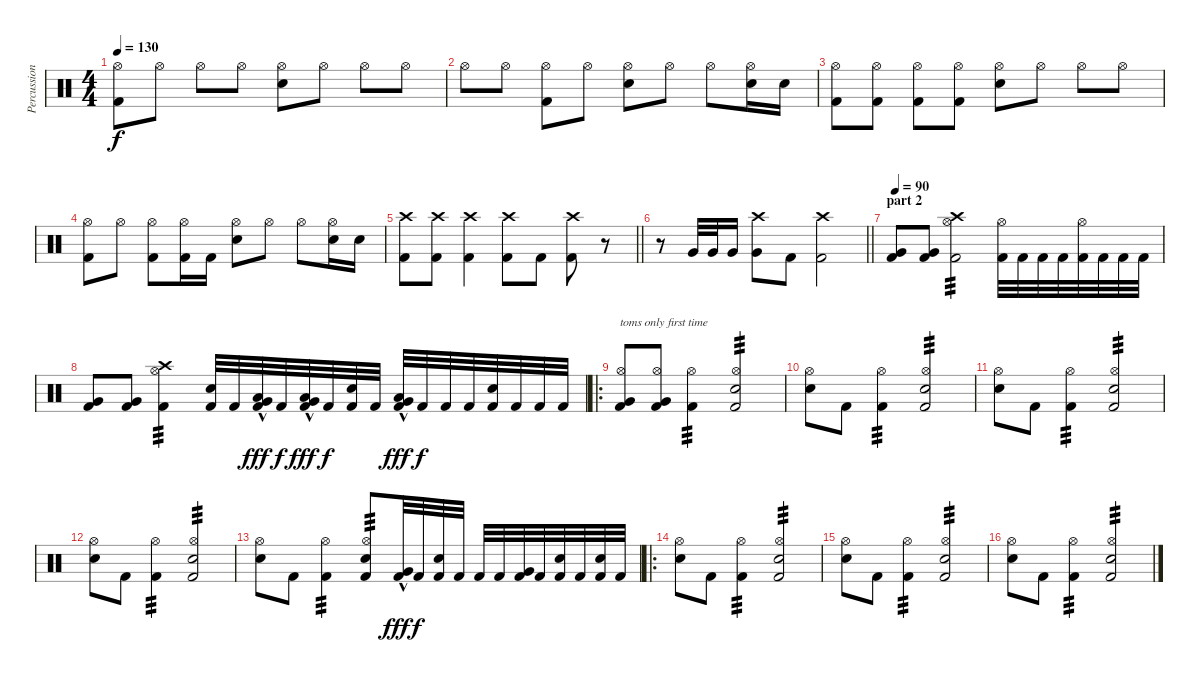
\track ("Percussion" "Percussion") {instrument percussion}
\staff {score}
\articulation defaults
\ts (4 4)
\tempo 130
\clef neutral
\ks c
("Kick (hit) 2" "Hi-Hat (open)").8{dy f} "Hi-Hat (open)".8 "Hi-Hat (open)".8 "Hi-Hat (open)".8 ("Electric Snare (hit)" "Hi-Hat (open)").8 "Hi-Hat (open)".8 "Hi-Hat (open)".8 "Hi-Hat (open)".8 |
"Hi-Hat (open)".8 "Hi-Hat (open)".8 ("Kick (hit) 2" "Hi-Hat (open)").8 "Hi-Hat (open)".8 ("Electric Snare (hit)" "Hi-Hat (open)").8 "Hi-Hat (open)".8 "Hi-Hat (open)".8 ("Electric Snare (hit)" "Hi-Hat (open)").16 "Electric Snare (hit)".16 |
("Kick (hit) 2" "Hi-Hat (open)").8 ("Kick (hit) 2" "Hi-Hat (open)").8 ("Kick (hit) 2" "Hi-Hat (open)").8 ("Kick (hit) 2" "Hi-Hat (open)").8 ("Electric Snare (hit)" "Hi-Hat (open)").8 "Hi-Hat (open)".8 "Hi-Hat (open)".8 "Hi-Hat (open)".8 |
("Kick (hit) 2" "Hi-Hat (open)").8 "Hi-Hat (open)".8 ("Kick (hit) 2" "Hi-Hat (open)").8 ("Kick (hit) 2" "Hi-Hat (open)").16 "Kick (hit) 2".16 ("Electric Snare (hit)" "Hi-Hat (open)").8 "Hi-Hat (open)".8 "Hi-Hat (open)".8 ("Electric Snare (hit)" "Hi-Hat (open)").16 "Electric Snare (hit)".16 |
\barLineRight lightlight
("Kick (hit) 2" "Crash high (hit)").8 ("Kick (hit) 2" "Crash high (hit)").8 ("Kick (hit) 2" "Crash high (hit)").4 ("Kick (hit) 2" "Crash high (hit)").8 "Kick (hit) 2".8 ("Kick (hit) 2" "Crash high (hit)").8 r.8 |
\barLineRight lightlight
r.8 "Very Low Tom (hit)".32 "Very Low Tom (hit)".32 "Very Low Tom (hit)".16 ("Very Low Tom (hit)" "Crash high (hit)").8 "Kick (hit) 2".8 ("Kick (hit) 2" "Crash high (hit)").2 |
\section ("" "part 2")
\tempo 90
("Kick (hit) 2" "Very Low Tom (hit)").8 ("Kick (hit) 2" "Very Low Tom (hit)").8 ("Kick (hit) 2" "Hi-Hat (open)" "Crash high (hit)").2{tp 3} ("Kick (hit) 2" "Hi-Hat (open)").32 "Kick (hit) 2".32 "Kick (hit) 2".32 "Kick (hit) 2".32 ("Kick (hit) 2" "Hi-Hat (open)").32 "Kick (hit) 2".32 "Kick (hit) 2".32 "Kick (hit) 2".32 |
("Kick (hit) 2" "Very Low Tom (hit)").8 ("Kick (hit) 2" "Very Low Tom (hit)").8 ("Kick (hit) 2" "Hi-Hat (open)" "Crash high (hit)").4{tp 3} ("Electric Snare (hit)" "Kick (hit) 2").32 "Kick (hit) 2".32 ("Kick (hit) 2" "Very Low Tom (hit)"{hac} "Low Tom (hit)"{hac}).32{dy fff} "Kick (hit) 2".32{dy f} ("Kick (hit) 2" "Very Low Tom (hit)"{hac} "Low Tom (hit)"{hac}).32{dy fff} "Kick (hit) 2".32{dy f} ("Electric Snare (hit)" "Kick (hit) 2").32 "Kick (hit) 2".32 ("Kick (hit) 2" "Very Low Tom (hit)"{hac} "Low Tom (hit)"{hac}).32{dy fff} "Kick (hit) 2".32{dy f} "Kick (hit) 2".32 "Kick (hit) 2".32 ("Electric Snare (hit)" "Kick (hit) 2").32 "Kick (hit) 2".32 "Kick (hit) 2".32 "Kick (hit) 2".32 |
\ro
("Kick (hit) 2" "Very Low Tom (hit)" "Hi-Hat (open)").8{txt "toms only first time"} ("Kick (hit) 2" "Very Low Tom (hit)" "Hi-Hat (open)").8 ("Kick (hit) 2" "Hi-Hat (open)").4{tp 3} ("Kick (hit) 2" "Electric Snare (hit)" "Hi-Hat (open)").2{tp 3} |
("Electric Snare (hit)" "Hi-Hat (open)").8 "Kick (hit) 2".8 ("Kick (hit) 2" "Hi-Hat (open)").4{tp 3} ("Kick (hit) 2" "Electric Snare (hit)" "Hi-Hat (open)").2{tp 3} |
("Electric Snare (hit)" "Hi-Hat (open)").8 "Kick (hit) 2".8 ("Kick (hit) 2" "Hi-Hat (open)").4{tp 3} ("Kick (hit) 2" "Electric Snare (hit)" "Hi-Hat (open)").2{tp 3} |
("Electric Snare (hit)" "Hi-Hat (open)").8 "Kick (hit) 2".8 ("Kick (hit) 2" "Hi-Hat (open)").4{tp 3} ("Kick (hit) 2" "Electric Snare (hit)" "Hi-Hat (open)").2{tp 3} |
("Electric Snare (hit)" "Hi-Hat (open)").8 "Kick (hit) 2".8 ("Kick (hit) 2" "Hi-Hat (open)").4{tp 3} ("Kick (hit) 2" "Electric Snare (hit)" "Hi-Hat (open)").8{tp 3} ("Kick (hit) 2" "Very Low Tom (hit)"{hac}).32{dy fff} "Kick (hit) 2".32{dy f} ("Kick (hit) 2" "Electric Snare (hit)").32 "Kick (hit) 2".32 "Kick (hit) 2".32 "Kick (hit) 2".32 ("Kick (hit) 2" "Very Low Tom (hit)").32 "Kick (hit) 2".32 ("Kick (hit) 2" "Electric Snare (hit)").32 "Kick (hit) 2".32 ("Kick (hit) 2" "Electric Snare (hit)").32 "Kick (hit) 2".32 |
\ro
("Electric Snare (hit)" "Hi-Hat (open)").8 "Kick (hit) 2".8 ("Kick (hit) 2" "Hi-Hat (open)").4{tp 3} ("Kick (hit) 2" "Electric Snare (hit)" "Hi-Hat (open)").2{tp 3} |
("Electric Snare (hit)" "Hi-Hat (open)").8 "Kick (hit) 2".8 ("Kick (hit) 2" "Hi-Hat (open)").4{tp 3} ("Kick (hit) 2" "Electric Snare (hit)" "Hi-Hat (open)").2{tp 3} |
("Electric Snare (hit)" "Hi-Hat (open)").8 "Kick (hit) 2".8 ("Kick (hit) 2" "Hi-Hat (open)").4{tp 3} ("Kick (hit) 2" "Electric Snare (hit)" "Hi-Hat (open)").2{tp 3}
